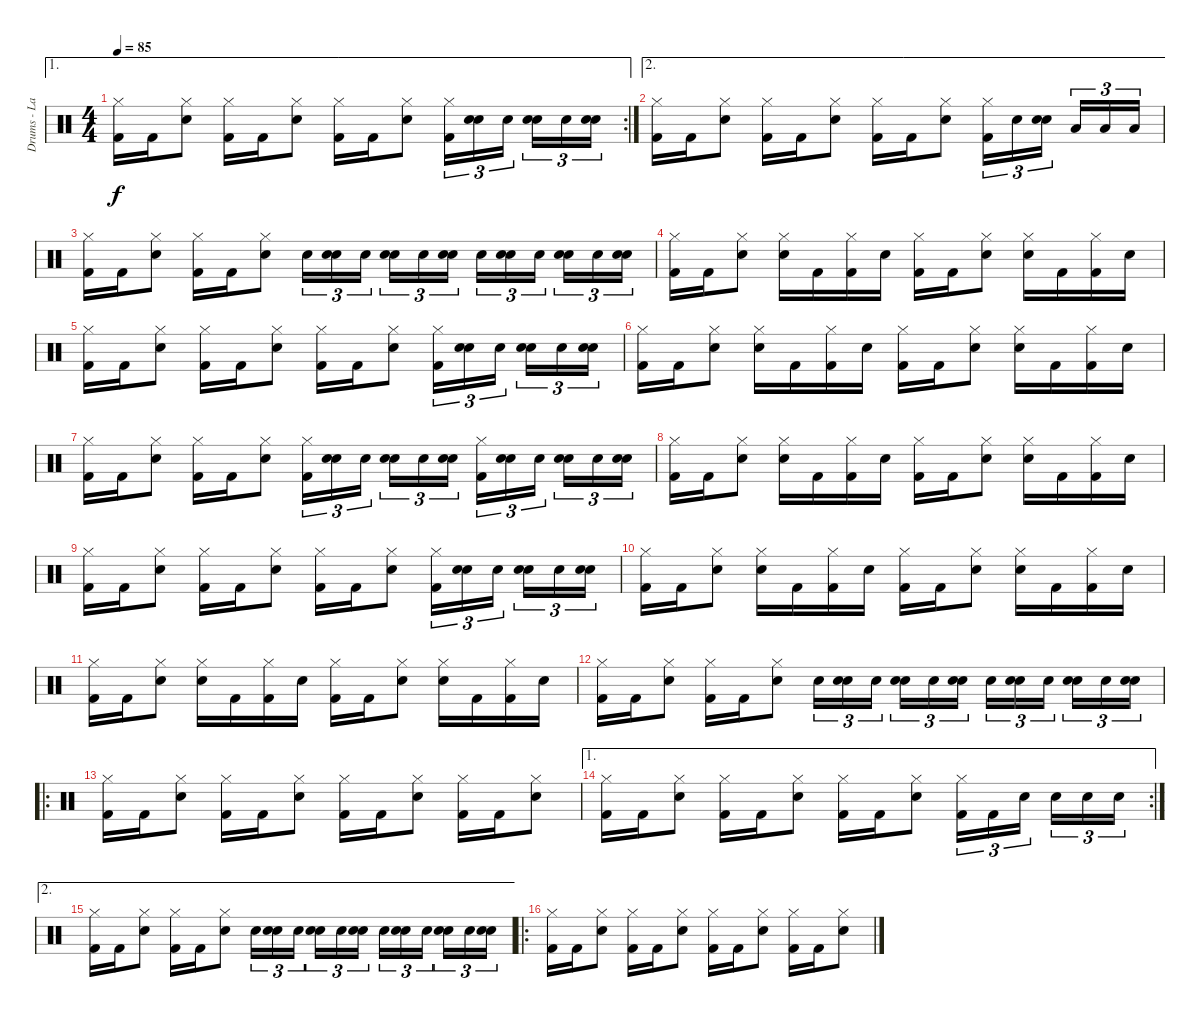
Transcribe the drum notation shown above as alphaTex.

\track ("Drums - Larzon" "Drums - La") {instrument percussion}
\staff {score}
\articulation defaults
\ae 1
\rc 2
\ts (4 4)
\tempo 85
\clef neutral
\ks c
("Hi-Hat (closed)" "Kick (hit) 2").16{dy f} "Kick (hit) 2".16 ("Hi-Hat (closed)" "Snare (hit) 2").8 ("Hi-Hat (closed)" "Kick (hit) 2").16 "Kick (hit) 2".16 ("Hi-Hat (closed)" "Snare (hit) 2").8 ("Hi-Hat (closed)" "Kick (hit) 2").16 "Kick (hit) 2".16 ("Hi-Hat (closed)" "Snare (hit) 2").8 ("Hi-Hat (closed)" "Kick (hit) 2").16{tu (3 2)} ("Snare (hit) 2" "Snare (hit) 2").16{tu (3 2)} "Snare (hit) 2".16{tu (3 2)} ("Snare (hit) 2" "Snare (hit) 2").16{tu (3 2)} "Snare (hit) 2".16{tu (3 2)} ("Snare (hit) 2" "Snare (hit) 2").16{tu (3 2)} |
\ae 2
("Hi-Hat (closed)" "Kick (hit) 2").16 "Kick (hit) 2".16 ("Hi-Hat (closed)" "Snare (hit) 2").8 ("Hi-Hat (closed)" "Kick (hit) 2").16 "Kick (hit) 2".16 ("Hi-Hat (closed)" "Snare (hit) 2").8 ("Hi-Hat (closed)" "Kick (hit) 2").16 "Kick (hit) 2".16 ("Hi-Hat (closed)" "Snare (hit) 2").8 ("Hi-Hat (closed)" "Kick (hit) 2").16{tu (3 2)} "Snare (hit) 2".16{tu (3 2)} ("Snare (hit) 2" "Snare (hit) 2").16{tu (3 2)} "Low Tom (hit)".16{tu (3 2)} "Low Tom (hit)".16{tu (3 2)} "Low Tom (hit)".16{tu (3 2)} |
("Hi-Hat (closed)" "Kick (hit) 2").16 "Kick (hit) 2".16 ("Hi-Hat (closed)" "Snare (hit) 2").8 ("Hi-Hat (closed)" "Kick (hit) 2").16 "Kick (hit) 2".16 ("Hi-Hat (closed)" "Snare (hit) 2").8 "Snare (hit) 2".16{tu (3 2)} ("Snare (hit) 2" "Snare (hit) 2").16{tu (3 2)} "Snare (hit) 2".16{tu (3 2)} ("Snare (hit) 2" "Snare (hit) 2").16{tu (3 2)} "Snare (hit) 2".16{tu (3 2)} ("Snare (hit) 2" "Snare (hit) 2").16{tu (3 2)} "Snare (hit) 2".16{tu (3 2)} ("Snare (hit) 2" "Snare (hit) 2").16{tu (3 2)} "Snare (hit) 2".16{tu (3 2)} ("Snare (hit) 2" "Snare (hit) 2").16{tu (3 2)} "Snare (hit) 2".16{tu (3 2)} ("Snare (hit) 2" "Snare (hit) 2").16{tu (3 2)} |
("Hi-Hat (closed)" "Kick (hit) 2").16 "Kick (hit) 2".16 ("Hi-Hat (closed)" "Snare (hit) 2").8 ("Hi-Hat (closed)" "Snare (hit) 2").16 "Kick (hit) 2".16 ("Hi-Hat (closed)" "Kick (hit) 2").16 "Snare (hit) 2".16 ("Hi-Hat (closed)" "Kick (hit) 2").16 "Kick (hit) 2".16 ("Hi-Hat (closed)" "Snare (hit) 2").8 ("Hi-Hat (closed)" "Snare (hit) 2").16 "Kick (hit) 2".16 ("Hi-Hat (closed)" "Kick (hit) 2").16 "Snare (hit) 2".16 |
("Hi-Hat (closed)" "Kick (hit) 2").16 "Kick (hit) 2".16 ("Hi-Hat (closed)" "Snare (hit) 2").8 ("Hi-Hat (closed)" "Kick (hit) 2").16 "Kick (hit) 2".16 ("Hi-Hat (closed)" "Snare (hit) 2").8 ("Hi-Hat (closed)" "Kick (hit) 2").16 "Kick (hit) 2".16 ("Hi-Hat (closed)" "Snare (hit) 2").8 ("Hi-Hat (closed)" "Kick (hit) 2").16{tu (3 2)} ("Snare (hit) 2" "Snare (hit) 2").16{tu (3 2)} "Snare (hit) 2".16{tu (3 2)} ("Snare (hit) 2" "Snare (hit) 2").16{tu (3 2)} "Snare (hit) 2".16{tu (3 2)} ("Snare (hit) 2" "Snare (hit) 2").16{tu (3 2)} |
("Hi-Hat (closed)" "Kick (hit) 2").16 "Kick (hit) 2".16 ("Hi-Hat (closed)" "Snare (hit) 2").8 ("Hi-Hat (closed)" "Snare (hit) 2").16 "Kick (hit) 2".16 ("Hi-Hat (closed)" "Kick (hit) 2").16 "Snare (hit) 2".16 ("Hi-Hat (closed)" "Kick (hit) 2").16 "Kick (hit) 2".16 ("Hi-Hat (closed)" "Snare (hit) 2").8 ("Hi-Hat (closed)" "Snare (hit) 2").16 "Kick (hit) 2".16 ("Hi-Hat (closed)" "Kick (hit) 2").16 "Snare (hit) 2".16 |
("Hi-Hat (closed)" "Kick (hit) 2").16 "Kick (hit) 2".16 ("Hi-Hat (closed)" "Snare (hit) 2").8 ("Hi-Hat (closed)" "Kick (hit) 2").16 "Kick (hit) 2".16 ("Hi-Hat (closed)" "Snare (hit) 2").8 ("Hi-Hat (closed)" "Kick (hit) 2").16{tu (3 2)} ("Snare (hit) 2" "Snare (hit) 2").16{tu (3 2)} "Snare (hit) 2".16{tu (3 2)} ("Snare (hit) 2" "Snare (hit) 2").16{tu (3 2)} "Snare (hit) 2".16{tu (3 2)} ("Snare (hit) 2" "Snare (hit) 2").16{tu (3 2)} ("Hi-Hat (closed)" "Kick (hit) 2").16{tu (3 2)} ("Snare (hit) 2" "Snare (hit) 2").16{tu (3 2)} "Snare (hit) 2".16{tu (3 2)} ("Snare (hit) 2" "Snare (hit) 2").16{tu (3 2)} "Snare (hit) 2".16{tu (3 2)} ("Snare (hit) 2" "Snare (hit) 2").16{tu (3 2)} |
("Hi-Hat (closed)" "Kick (hit) 2").16 "Kick (hit) 2".16 ("Hi-Hat (closed)" "Snare (hit) 2").8 ("Hi-Hat (closed)" "Snare (hit) 2").16 "Kick (hit) 2".16 ("Hi-Hat (closed)" "Kick (hit) 2").16 "Snare (hit) 2".16 ("Hi-Hat (closed)" "Kick (hit) 2").16 "Kick (hit) 2".16 ("Hi-Hat (closed)" "Snare (hit) 2").8 ("Hi-Hat (closed)" "Snare (hit) 2").16 "Kick (hit) 2".16 ("Hi-Hat (closed)" "Kick (hit) 2").16 "Snare (hit) 2".16 |
("Hi-Hat (closed)" "Kick (hit) 2").16 "Kick (hit) 2".16 ("Hi-Hat (closed)" "Snare (hit) 2").8 ("Hi-Hat (closed)" "Kick (hit) 2").16 "Kick (hit) 2".16 ("Hi-Hat (closed)" "Snare (hit) 2").8 ("Hi-Hat (closed)" "Kick (hit) 2").16 "Kick (hit) 2".16 ("Hi-Hat (closed)" "Snare (hit) 2").8 ("Hi-Hat (closed)" "Kick (hit) 2").16{tu (3 2)} ("Snare (hit) 2" "Snare (hit) 2").16{tu (3 2)} "Snare (hit) 2".16{tu (3 2)} ("Snare (hit) 2" "Snare (hit) 2").16{tu (3 2)} "Snare (hit) 2".16{tu (3 2)} ("Snare (hit) 2" "Snare (hit) 2").16{tu (3 2)} |
("Hi-Hat (closed)" "Kick (hit) 2").16 "Kick (hit) 2".16 ("Hi-Hat (closed)" "Snare (hit) 2").8 ("Hi-Hat (closed)" "Snare (hit) 2").16 "Kick (hit) 2".16 ("Hi-Hat (closed)" "Kick (hit) 2").16 "Snare (hit) 2".16 ("Hi-Hat (closed)" "Kick (hit) 2").16 "Kick (hit) 2".16 ("Hi-Hat (closed)" "Snare (hit) 2").8 ("Hi-Hat (closed)" "Snare (hit) 2").16 "Kick (hit) 2".16 ("Hi-Hat (closed)" "Kick (hit) 2").16 "Snare (hit) 2".16 |
("Hi-Hat (closed)" "Kick (hit) 2").16 "Kick (hit) 2".16 ("Hi-Hat (closed)" "Snare (hit) 2").8 ("Hi-Hat (closed)" "Snare (hit) 2").16 "Kick (hit) 2".16 ("Hi-Hat (closed)" "Kick (hit) 2").16 "Snare (hit) 2".16 ("Hi-Hat (closed)" "Kick (hit) 2").16 "Kick (hit) 2".16 ("Hi-Hat (closed)" "Snare (hit) 2").8 ("Hi-Hat (closed)" "Snare (hit) 2").16 "Kick (hit) 2".16 ("Hi-Hat (closed)" "Kick (hit) 2").16 "Snare (hit) 2".16 |
("Hi-Hat (closed)" "Kick (hit) 2").16 "Kick (hit) 2".16 ("Hi-Hat (closed)" "Snare (hit) 2").8 ("Hi-Hat (closed)" "Kick (hit) 2").16 "Kick (hit) 2".16 ("Hi-Hat (closed)" "Snare (hit) 2").8 "Snare (hit) 2".16{tu (3 2)} ("Snare (hit) 2" "Snare (hit) 2").16{tu (3 2)} "Snare (hit) 2".16{tu (3 2)} ("Snare (hit) 2" "Snare (hit) 2").16{tu (3 2)} "Snare (hit) 2".16{tu (3 2)} ("Snare (hit) 2" "Snare (hit) 2").16{tu (3 2)} "Snare (hit) 2".16{tu (3 2)} ("Snare (hit) 2" "Snare (hit) 2").16{tu (3 2)} "Snare (hit) 2".16{tu (3 2)} ("Snare (hit) 2" "Snare (hit) 2").16{tu (3 2)} "Snare (hit) 2".16{tu (3 2)} ("Snare (hit) 2" "Snare (hit) 2").16{tu (3 2)} |
\ro
("Hi-Hat (closed)" "Kick (hit) 2").16 "Kick (hit) 2".16 ("Hi-Hat (closed)" "Snare (hit) 2").8 ("Hi-Hat (closed)" "Kick (hit) 2").16 "Kick (hit) 2".16 ("Hi-Hat (closed)" "Snare (hit) 2").8 ("Hi-Hat (closed)" "Kick (hit) 2").16 "Kick (hit) 2".16 ("Hi-Hat (closed)" "Snare (hit) 2").8 ("Hi-Hat (closed)" "Kick (hit) 2").16 "Kick (hit) 2".16 ("Hi-Hat (closed)" "Snare (hit) 2").8 |
\ae 1
\rc 2
("Hi-Hat (closed)" "Kick (hit) 2").16 "Kick (hit) 2".16 ("Hi-Hat (closed)" "Snare (hit) 2").8 ("Hi-Hat (closed)" "Kick (hit) 2").16 "Kick (hit) 2".16 ("Hi-Hat (closed)" "Snare (hit) 2").8 ("Hi-Hat (closed)" "Kick (hit) 2").16 "Kick (hit) 2".16 ("Hi-Hat (closed)" "Snare (hit) 2").8 ("Hi-Hat (closed)" "Kick (hit) 2").16{tu (3 2)} "Kick (hit) 2".16{tu (3 2)} "Snare (hit) 2".16{tu (3 2)} "Snare (hit) 2".16{tu (3 2)} "Snare (hit) 2".16{tu (3 2)} "Snare (hit) 2".16{tu (3 2)} |
\ae 2
("Hi-Hat (closed)" "Kick (hit) 2").16 "Kick (hit) 2".16 ("Hi-Hat (closed)" "Snare (hit) 2").8 ("Hi-Hat (closed)" "Kick (hit) 2").16 "Kick (hit) 2".16 ("Hi-Hat (closed)" "Snare (hit) 2").8 "Snare (hit) 2".16{tu (3 2)} ("Snare (hit) 2" "Snare (hit) 2").16{tu (3 2)} "Snare (hit) 2".16{tu (3 2)} ("Snare (hit) 2" "Snare (hit) 2").16{tu (3 2)} "Snare (hit) 2".16{tu (3 2)} ("Snare (hit) 2" "Snare (hit) 2").16{tu (3 2)} "Snare (hit) 2".16{tu (3 2)} ("Snare (hit) 2" "Snare (hit) 2").16{tu (3 2)} "Snare (hit) 2".16{tu (3 2)} ("Snare (hit) 2" "Snare (hit) 2").16{tu (3 2)} "Snare (hit) 2".16{tu (3 2)} ("Snare (hit) 2" "Snare (hit) 2").16{tu (3 2)} |
\ro
("Hi-Hat (closed)" "Kick (hit) 2").16 "Kick (hit) 2".16 ("Hi-Hat (closed)" "Snare (hit) 2").8 ("Hi-Hat (closed)" "Kick (hit) 2").16 "Kick (hit) 2".16 ("Hi-Hat (closed)" "Snare (hit) 2").8 ("Hi-Hat (closed)" "Kick (hit) 2").16 "Kick (hit) 2".16 ("Hi-Hat (closed)" "Snare (hit) 2").8 ("Hi-Hat (closed)" "Kick (hit) 2").16 "Kick (hit) 2".16 ("Hi-Hat (closed)" "Snare (hit) 2").8
